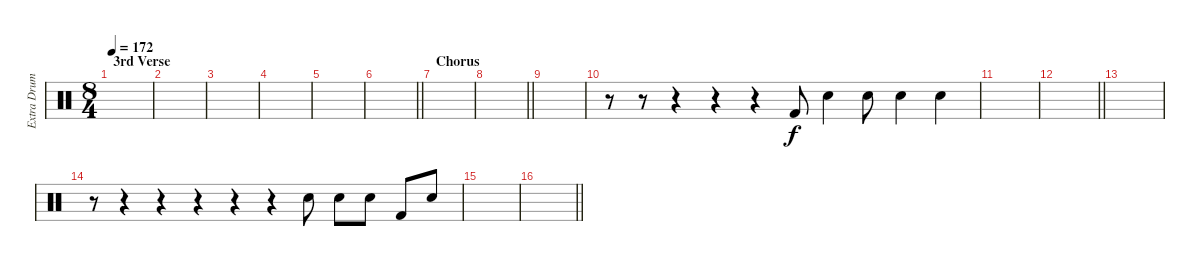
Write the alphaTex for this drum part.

\track ("Extra Drums" "Extra Drum") {instrument percussion}
\staff {score}
\articulation defaults
\ts (8 4)
\section ("" "3rd Verse")
\tempo 172
\clef neutral
\ks c
|
|
|
|
|
\barLineRight lightlight
|
\section ("" "Chorus")
|
\barLineRight lightlight
|
|
r.8 r.8 r.4 r.4 r.4 "Kick (hit) 2".8 "Snare (hit) 2".4 "Snare (hit) 2".8 "Electric Snare (hit)".4 "Snare (hit) 2".4 |
|
\barLineRight lightlight
|
|
r.8 r.4 r.4 r.4 r.4 r.4 "Electric Snare (hit)".8 "Electric Snare (hit)".8 "Electric Snare (hit)".8 "Kick (hit) 2".8 "Snare (hit) 2".8 |
|
\barLineRight lightlight
